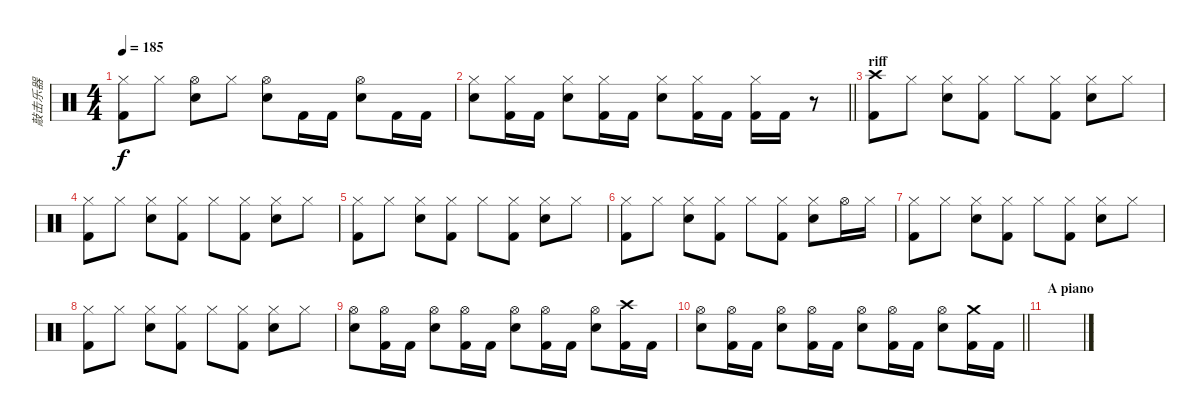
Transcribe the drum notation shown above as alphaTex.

\track ("敲击乐器" "敲击乐器") {instrument percussion}
\staff {score}
\articulation defaults
\ts (4 4)
\tempo 185
\clef neutral
\ks c
("Hi-Hat (closed)" "Kick (hit) 2").8{dy f} "Hi-Hat (closed)".8 ("Hi-Hat (open)" "Snare (hit) 2").8 "Hi-Hat (closed)".8 ("Hi-Hat (open)" "Snare (hit) 2").8 "Kick (hit) 2".16 "Kick (hit) 2".16 ("Hi-Hat (open)" "Snare (hit) 2").8 "Kick (hit) 2".16 "Kick (hit) 2".16 |
\barLineRight lightlight
("Hi-Hat (closed)" "Snare (hit) 2").8 ("Hi-Hat (closed)" "Kick (hit) 2").16 "Kick (hit) 2".16 ("Hi-Hat (closed)" "Snare (hit) 2").8 ("Hi-Hat (closed)" "Kick (hit) 2").16 "Kick (hit) 2".16 ("Hi-Hat (closed)" "Snare (hit) 2").8 ("Hi-Hat (closed)" "Kick (hit) 2").16 "Kick (hit) 2".16 ("Hi-Hat (closed)" "Kick (hit) 2").16 "Kick (hit) 2".16 r.8 |
\section ("" "riff")
("Crash high (hit)" "Kick (hit) 2").8 "Hi-Hat (closed)".8 ("Hi-Hat (closed)" "Snare (hit) 2").8 ("Hi-Hat (closed)" "Kick (hit) 2").8 "Hi-Hat (closed)".8 ("Hi-Hat (closed)" "Kick (hit) 2").8 ("Hi-Hat (closed)" "Snare (hit) 2").8 "Hi-Hat (closed)".8 |
("Hi-Hat (closed)" "Kick (hit) 2").8 "Hi-Hat (closed)".8 ("Hi-Hat (closed)" "Snare (hit) 2").8 ("Hi-Hat (closed)" "Kick (hit) 2").8 "Hi-Hat (closed)".8 ("Hi-Hat (closed)" "Kick (hit) 2").8 ("Hi-Hat (closed)" "Snare (hit) 2").8 "Hi-Hat (closed)".8 |
("Hi-Hat (closed)" "Kick (hit) 2").8 "Hi-Hat (closed)".8 ("Hi-Hat (closed)" "Snare (hit) 2").8 ("Hi-Hat (closed)" "Kick (hit) 2").8 "Hi-Hat (closed)".8 ("Hi-Hat (closed)" "Kick (hit) 2").8 ("Hi-Hat (closed)" "Snare (hit) 2").8 "Hi-Hat (closed)".8 |
("Hi-Hat (closed)" "Kick (hit) 2").8 "Hi-Hat (closed)".8 ("Hi-Hat (closed)" "Snare (hit) 2").8 ("Hi-Hat (closed)" "Kick (hit) 2").8 "Hi-Hat (closed)".8 ("Hi-Hat (closed)" "Kick (hit) 2").8 ("Hi-Hat (closed)" "Snare (hit) 2").8 "Hi-Hat (open)".16 "Hi-Hat (closed)".16 |
("Hi-Hat (closed)" "Kick (hit) 2").8 "Hi-Hat (closed)".8 ("Hi-Hat (closed)" "Snare (hit) 2").8 ("Hi-Hat (closed)" "Kick (hit) 2").8 "Hi-Hat (closed)".8 ("Hi-Hat (closed)" "Kick (hit) 2").8 ("Hi-Hat (closed)" "Snare (hit) 2").8 "Hi-Hat (closed)".8 |
("Hi-Hat (closed)" "Kick (hit) 2").8 "Hi-Hat (closed)".8 ("Hi-Hat (closed)" "Snare (hit) 2").8 ("Hi-Hat (closed)" "Kick (hit) 2").8 "Hi-Hat (closed)".8 ("Hi-Hat (closed)" "Kick (hit) 2").8 ("Hi-Hat (closed)" "Snare (hit) 2").8 "Hi-Hat (closed)".8 |
("Hi-Hat (open)" "Snare (hit) 2").8 ("Hi-Hat (open)" "Kick (hit) 2").16 "Kick (hit) 2".16 ("Hi-Hat (open)" "Snare (hit) 2").8 ("Hi-Hat (open)" "Kick (hit) 2").16 "Kick (hit) 2".16 ("Hi-Hat (open)" "Snare (hit) 2").8 ("Hi-Hat (open)" "Kick (hit) 2").16 "Kick (hit) 2".16 ("Hi-Hat (open)" "Snare (hit) 2").8 ("Crash high (hit)" "Kick (hit) 2").16 "Kick (hit) 2".16 |
\barLineRight lightlight
("Hi-Hat (open)" "Snare (hit) 2").8 ("Hi-Hat (open)" "Kick (hit) 2").16 "Kick (hit) 2".16 ("Hi-Hat (open)" "Snare (hit) 2").8 ("Hi-Hat (open)" "Kick (hit) 2").16 "Kick (hit) 2".16 ("Hi-Hat (open)" "Snare (hit) 2").8 ("Hi-Hat (open)" "Kick (hit) 2").16 "Kick (hit) 2".16 ("Hi-Hat (open)" "Snare (hit) 2").8 ("Crash medium (hit)" "Kick (hit) 2").16 "Kick (hit) 2".16 |
\section ("" "A piano")
